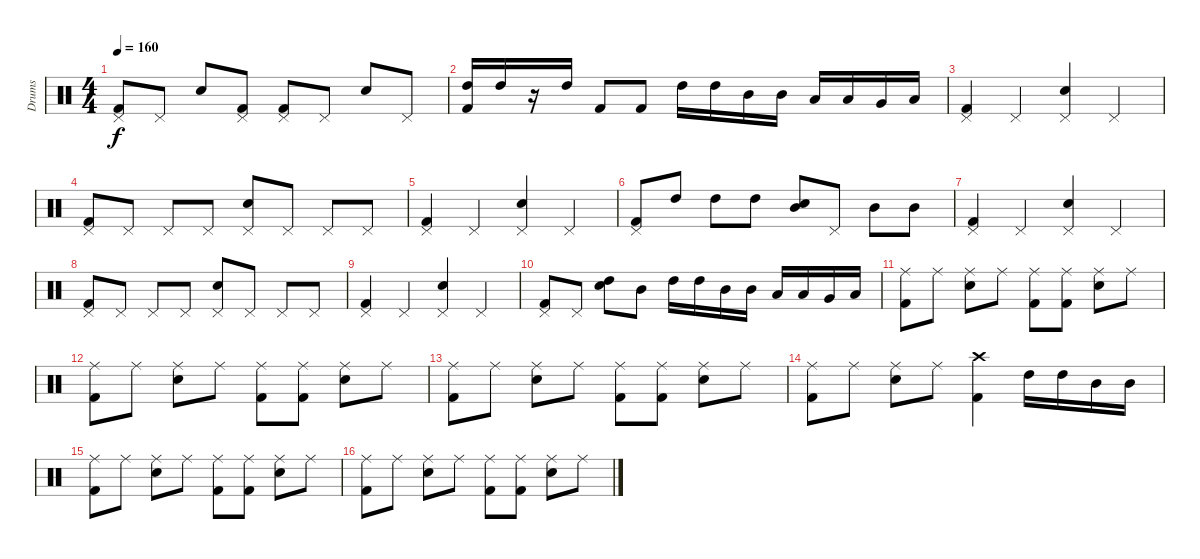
\track ("Drums" "Drums") {instrument percussion}
\staff {score}
\articulation defaults
\ts (4 4)
\tempo 160
\clef neutral
\ks c
("Pedal Hi-Hat (hit)" "Kick (hit) 2").8{dy f} "Pedal Hi-Hat (hit)".8 "Electric Snare (hit)".8 ("Pedal Hi-Hat (hit)" "Kick (hit) 2").8 ("Pedal Hi-Hat (hit)" "Kick (hit) 2").8 "Pedal Hi-Hat (hit)".8 "Electric Snare (hit)".8 "Pedal Hi-Hat (hit)".8 |
("High Tom (hit)" "Kick (hit) 2").16 "High Tom (hit)".16 r.16 "High Tom (hit)".16 "Kick (hit) 2".8 "Kick (hit) 2".8 "High Tom (hit)".16 "High Tom (hit)".16 "Mid Tom (hit)".16 "Mid Tom (hit)".16 "Low Tom (hit)".16 "Low Tom (hit)".16 "Very Low Tom (hit)".16 "Low Floor Tom (hit)".16 |
("Pedal Hi-Hat (hit)" "Kick (hit) 2").4 "Pedal Hi-Hat (hit)".4 ("Pedal Hi-Hat (hit)" "Electric Snare (hit)").4 "Pedal Hi-Hat (hit)".4 |
("Pedal Hi-Hat (hit)" "Kick (hit) 2").8 "Pedal Hi-Hat (hit)".8 "Pedal Hi-Hat (hit)".8 "Pedal Hi-Hat (hit)".8 ("Electric Snare (hit)" "Pedal Hi-Hat (hit)").8 "Pedal Hi-Hat (hit)".8 "Pedal Hi-Hat (hit)".8 "Pedal Hi-Hat (hit)".8 |
("Pedal Hi-Hat (hit)" "Kick (hit) 2").4 "Pedal Hi-Hat (hit)".4 ("Pedal Hi-Hat (hit)" "Electric Snare (hit)").4 "Pedal Hi-Hat (hit)".4 |
("Pedal Hi-Hat (hit)" "Kick (hit) 2").8 "High Tom (hit)".8 "High Tom (hit)".8 "High Tom (hit)".8 ("Mid Tom (hit)" "Electric Snare (hit)").8 "Pedal Hi-Hat (hit)".8 "Mid Tom (hit)".8 "Mid Tom (hit)".8 |
("Pedal Hi-Hat (hit)" "Kick (hit) 2").4 "Pedal Hi-Hat (hit)".4 ("Pedal Hi-Hat (hit)" "Electric Snare (hit)").4 "Pedal Hi-Hat (hit)".4 |
("Pedal Hi-Hat (hit)" "Kick (hit) 2").8 "Pedal Hi-Hat (hit)".8 "Pedal Hi-Hat (hit)".8 "Pedal Hi-Hat (hit)".8 ("Electric Snare (hit)" "Pedal Hi-Hat (hit)").8 "Pedal Hi-Hat (hit)".8 "Pedal Hi-Hat (hit)".8 "Pedal Hi-Hat (hit)".8 |
("Pedal Hi-Hat (hit)" "Kick (hit) 2").4 "Pedal Hi-Hat (hit)".4 ("Pedal Hi-Hat (hit)" "Electric Snare (hit)").4 "Pedal Hi-Hat (hit)".4 |
("Pedal Hi-Hat (hit)" "Kick (hit) 2").8 "Pedal Hi-Hat (hit)".8 ("High Tom (hit)" "Electric Snare (hit)").8 "Mid Tom (hit)".8 "High Tom (hit)".16 "High Tom (hit)".16 "Mid Tom (hit)".16 "Mid Tom (hit)".16 "Low Tom (hit)".16 "Low Tom (hit)".16 "Very Low Tom (hit)".16 "Low Floor Tom (hit)".16 |
("Ride (middle)" "Kick (hit) 2").8 "Ride (middle)".8 ("Electric Snare (hit)" "Ride (middle)").8 "Ride (middle)".8 ("Ride (middle)" "Kick (hit) 2").8 ("Ride (middle)" "Kick (hit) 2").8 ("Electric Snare (hit)" "Ride (middle)").8 "Ride (middle)".8 |
("Ride (middle)" "Kick (hit) 2").8 "Ride (middle)".8 ("Electric Snare (hit)" "Ride (middle)").8 "Ride (middle)".8 ("Ride (middle)" "Kick (hit) 2").8 ("Ride (middle)" "Kick (hit) 2").8 ("Electric Snare (hit)" "Ride (middle)").8 "Ride (middle)".8 |
("Ride (middle)" "Kick (hit) 2").8 "Ride (middle)".8 ("Electric Snare (hit)" "Ride (middle)").8 "Ride (middle)".8 ("Ride (middle)" "Kick (hit) 2").8 ("Ride (middle)" "Kick (hit) 2").8 ("Electric Snare (hit)" "Ride (middle)").8 "Ride (middle)".8 |
("Ride (middle)" "Kick (hit) 2").8 "Ride (middle)".8 ("Electric Snare (hit)" "Ride (middle)").8 "Ride (middle)".8 ("Crash high (hit)" "Kick (hit) 2").4 "High Tom (hit)".16 "High Tom (hit)".16 "Mid Tom (hit)".16 "Mid Tom (hit)".16 |
("Ride (middle)" "Kick (hit) 2").8 "Ride (middle)".8 ("Electric Snare (hit)" "Ride (middle)").8 "Ride (middle)".8 ("Ride (middle)" "Kick (hit) 2").8 ("Ride (middle)" "Kick (hit) 2").8 ("Electric Snare (hit)" "Ride (middle)").8 "Ride (middle)".8 |
("Ride (middle)" "Kick (hit) 2").8 "Ride (middle)".8 ("Electric Snare (hit)" "Ride (middle)").8 "Ride (middle)".8 ("Ride (middle)" "Kick (hit) 2").8 ("Ride (middle)" "Kick (hit) 2").8 ("Electric Snare (hit)" "Ride (middle)").8 "Ride (middle)".8
